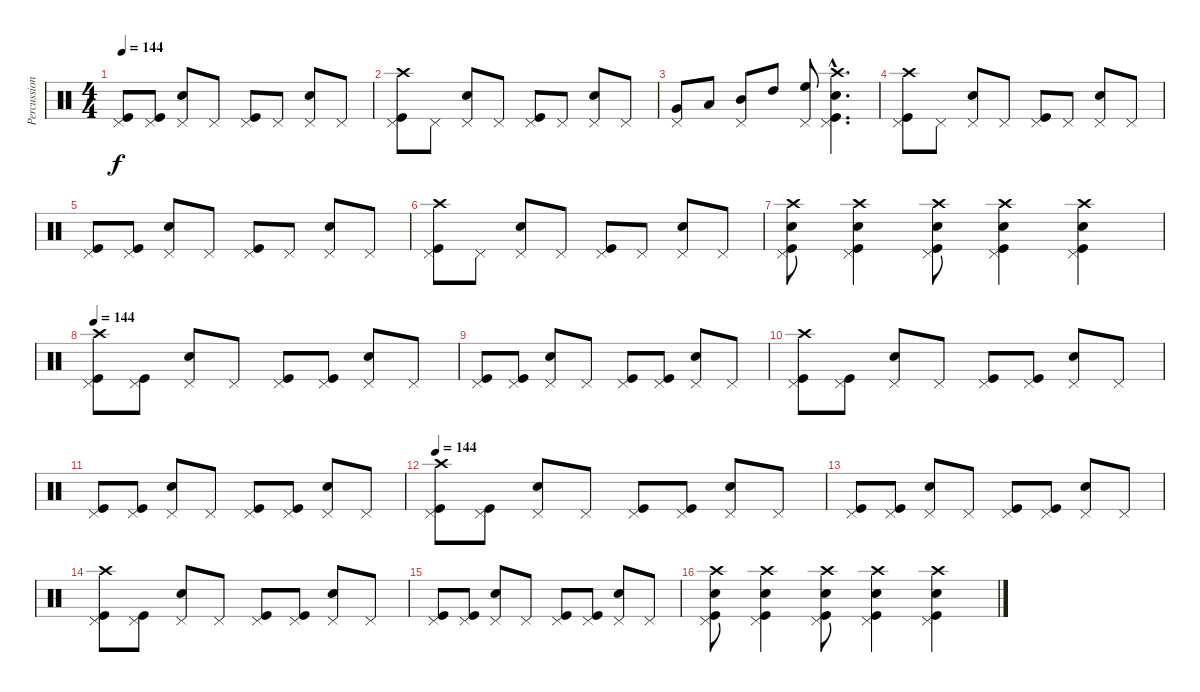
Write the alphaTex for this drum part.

\track ("Percussion" "Percussion") {instrument percussion}
\staff {score}
\articulation defaults
\ts (4 4)
\tempo 144
\clef neutral
\ks c
("Pedal Hi-Hat (hit)" "Kick (hit)").8{dy f} ("Pedal Hi-Hat (hit)" "Kick (hit)").8 ("Pedal Hi-Hat (hit)" "Snare (hit) 2").8 "Pedal Hi-Hat (hit)".8 ("Pedal Hi-Hat (hit)" "Kick (hit)").8 "Pedal Hi-Hat (hit)".8 ("Pedal Hi-Hat (hit)" "Snare (hit) 2").8 "Pedal Hi-Hat (hit)".8 |
("Pedal Hi-Hat (hit)" "Kick (hit)" "Crash high (hit)").8 "Pedal Hi-Hat (hit)".8 ("Pedal Hi-Hat (hit)" "Snare (hit) 2").8 "Pedal Hi-Hat (hit)".8 ("Pedal Hi-Hat (hit)" "Kick (hit)").8 "Pedal Hi-Hat (hit)".8 ("Pedal Hi-Hat (hit)" "Snare (hit) 2").8 "Pedal Hi-Hat (hit)".8 |
("Very Low Tom (hit)" "Pedal Hi-Hat (hit)").8 "Low Tom (hit)".8 ("Mid Tom (hit)" "Pedal Hi-Hat (hit)").8 "High Tom (hit)".8 ("High Floor Tom (hit)" "Pedal Hi-Hat (hit)").8 ("Crash high (hit)"{hac} "Kick (hit)"{hac} "Snare (hit) 2"{hac} "Pedal Hi-Hat (hit)"{hac}).4{d} |
("Pedal Hi-Hat (hit)" "Kick (hit)" "Crash high (hit)").8 "Pedal Hi-Hat (hit)".8 ("Pedal Hi-Hat (hit)" "Snare (hit) 2").8 "Pedal Hi-Hat (hit)".8 ("Pedal Hi-Hat (hit)" "Kick (hit)").8 "Pedal Hi-Hat (hit)".8 ("Pedal Hi-Hat (hit)" "Snare (hit) 2").8 "Pedal Hi-Hat (hit)".8 |
("Pedal Hi-Hat (hit)" "Kick (hit)").8 ("Pedal Hi-Hat (hit)" "Kick (hit)").8 ("Pedal Hi-Hat (hit)" "Snare (hit) 2").8 "Pedal Hi-Hat (hit)".8 ("Pedal Hi-Hat (hit)" "Kick (hit)").8 "Pedal Hi-Hat (hit)".8 ("Pedal Hi-Hat (hit)" "Snare (hit) 2").8 "Pedal Hi-Hat (hit)".8 |
("Pedal Hi-Hat (hit)" "Kick (hit)" "Crash high (hit)").8 "Pedal Hi-Hat (hit)".8 ("Pedal Hi-Hat (hit)" "Snare (hit) 2").8 "Pedal Hi-Hat (hit)".8 ("Pedal Hi-Hat (hit)" "Kick (hit)").8 "Pedal Hi-Hat (hit)".8 ("Pedal Hi-Hat (hit)" "Snare (hit) 2").8 "Pedal Hi-Hat (hit)".8 |
("Crash high (hit)" "Kick (hit)" "Snare (hit) 2" "Pedal Hi-Hat (hit)").8 ("Crash high (hit)" "Kick (hit)" "Snare (hit) 2" "Pedal Hi-Hat (hit)").4 ("Crash high (hit)" "Kick (hit)" "Snare (hit) 2" "Pedal Hi-Hat (hit)").8 ("Crash high (hit)" "Kick (hit)" "Snare (hit) 2" "Pedal Hi-Hat (hit)").4 ("Crash high (hit)" "Kick (hit)" "Snare (hit) 2" "Pedal Hi-Hat (hit)").4 |
\tempo 144
("Pedal Hi-Hat (hit)" "Kick (hit)" "Crash high (hit)").8 ("Pedal Hi-Hat (hit)" "Kick (hit)").8 ("Pedal Hi-Hat (hit)" "Snare (hit) 2").8 "Pedal Hi-Hat (hit)".8 ("Pedal Hi-Hat (hit)" "Kick (hit)").8 ("Pedal Hi-Hat (hit)" "Kick (hit)").8 ("Pedal Hi-Hat (hit)" "Snare (hit) 2").8 "Pedal Hi-Hat (hit)".8 |
("Pedal Hi-Hat (hit)" "Kick (hit)").8 ("Pedal Hi-Hat (hit)" "Kick (hit)").8 ("Pedal Hi-Hat (hit)" "Snare (hit) 2").8 "Pedal Hi-Hat (hit)".8 ("Pedal Hi-Hat (hit)" "Kick (hit)").8 ("Pedal Hi-Hat (hit)" "Kick (hit)").8 ("Pedal Hi-Hat (hit)" "Snare (hit) 2").8 "Pedal Hi-Hat (hit)".8 |
("Pedal Hi-Hat (hit)" "Kick (hit)" "Crash high (hit)").8 ("Pedal Hi-Hat (hit)" "Kick (hit)").8 ("Pedal Hi-Hat (hit)" "Snare (hit) 2").8 "Pedal Hi-Hat (hit)".8 ("Pedal Hi-Hat (hit)" "Kick (hit)").8 ("Pedal Hi-Hat (hit)" "Kick (hit)").8 ("Pedal Hi-Hat (hit)" "Snare (hit) 2").8 "Pedal Hi-Hat (hit)".8 |
("Pedal Hi-Hat (hit)" "Kick (hit)").8 ("Pedal Hi-Hat (hit)" "Kick (hit)").8 ("Pedal Hi-Hat (hit)" "Snare (hit) 2").8 "Pedal Hi-Hat (hit)".8 ("Pedal Hi-Hat (hit)" "Kick (hit)").8 ("Pedal Hi-Hat (hit)" "Kick (hit)").8 ("Pedal Hi-Hat (hit)" "Snare (hit) 2").8 "Pedal Hi-Hat (hit)".8 |
\tempo 144
("Pedal Hi-Hat (hit)" "Kick (hit)" "Crash high (hit)").8 ("Pedal Hi-Hat (hit)" "Kick (hit)").8 ("Pedal Hi-Hat (hit)" "Snare (hit) 2").8 "Pedal Hi-Hat (hit)".8 ("Pedal Hi-Hat (hit)" "Kick (hit)").8 ("Pedal Hi-Hat (hit)" "Kick (hit)").8 ("Pedal Hi-Hat (hit)" "Snare (hit) 2").8 "Pedal Hi-Hat (hit)".8 |
("Pedal Hi-Hat (hit)" "Kick (hit)").8 ("Pedal Hi-Hat (hit)" "Kick (hit)").8 ("Pedal Hi-Hat (hit)" "Snare (hit) 2").8 "Pedal Hi-Hat (hit)".8 ("Pedal Hi-Hat (hit)" "Kick (hit)").8 ("Pedal Hi-Hat (hit)" "Kick (hit)").8 ("Pedal Hi-Hat (hit)" "Snare (hit) 2").8 "Pedal Hi-Hat (hit)".8 |
("Pedal Hi-Hat (hit)" "Kick (hit)" "Crash high (hit)").8 ("Pedal Hi-Hat (hit)" "Kick (hit)").8 ("Pedal Hi-Hat (hit)" "Snare (hit) 2").8 "Pedal Hi-Hat (hit)".8 ("Pedal Hi-Hat (hit)" "Kick (hit)").8 ("Pedal Hi-Hat (hit)" "Kick (hit)").8 ("Pedal Hi-Hat (hit)" "Snare (hit) 2").8 "Pedal Hi-Hat (hit)".8 |
("Pedal Hi-Hat (hit)" "Kick (hit)").8 ("Pedal Hi-Hat (hit)" "Kick (hit)").8 ("Pedal Hi-Hat (hit)" "Snare (hit) 2").8 "Pedal Hi-Hat (hit)".8 ("Pedal Hi-Hat (hit)" "Kick (hit)").8 ("Pedal Hi-Hat (hit)" "Kick (hit)").8 ("Pedal Hi-Hat (hit)" "Snare (hit) 2").8 "Pedal Hi-Hat (hit)".8 |
("Crash high (hit)" "Kick (hit)" "Snare (hit) 2" "Pedal Hi-Hat (hit)").8 ("Crash high (hit)" "Kick (hit)" "Snare (hit) 2" "Pedal Hi-Hat (hit)").4 ("Crash high (hit)" "Kick (hit)" "Snare (hit) 2" "Pedal Hi-Hat (hit)").8 ("Crash high (hit)" "Kick (hit)" "Snare (hit) 2" "Pedal Hi-Hat (hit)").4 ("Crash high (hit)" "Kick (hit)" "Snare (hit) 2" "Pedal Hi-Hat (hit)").4
